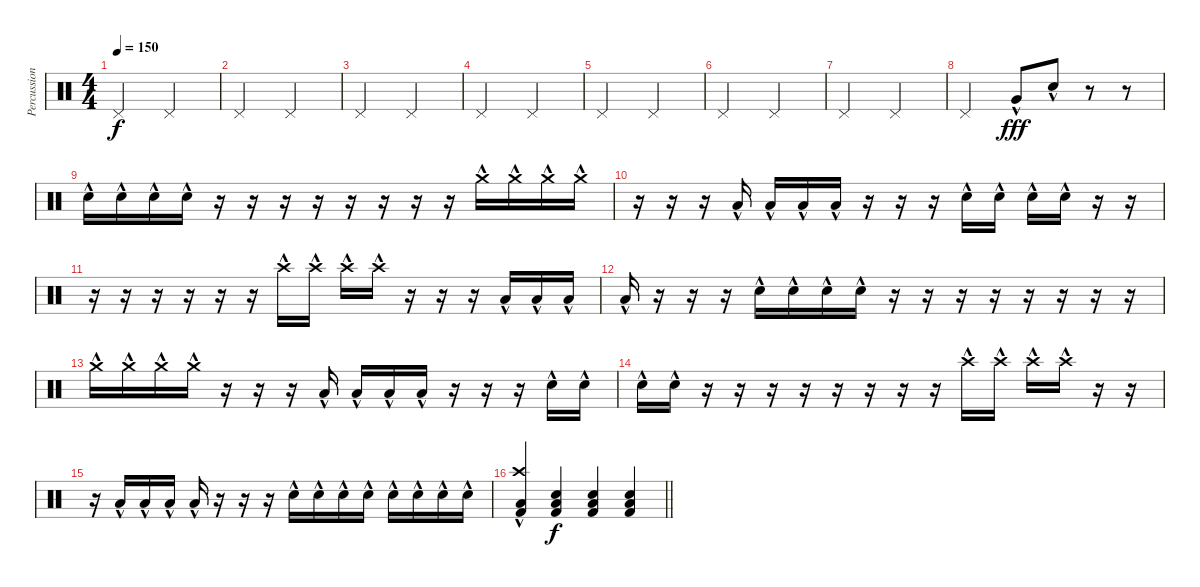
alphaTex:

\track ("Percussion" "Percussion") {instrument percussion}
\staff {score}
\articulation defaults
\ts (4 4)
\tempo 150
\clef neutral
\ks c "Pedal Hi-Hat (hit)".2{dy f} "Pedal Hi-Hat (hit)".2
|
"Pedal Hi-Hat (hit)".2 "Pedal Hi-Hat (hit)".2 |
"Pedal Hi-Hat (hit)".2 "Pedal Hi-Hat (hit)".2 |
"Pedal Hi-Hat (hit)".2 "Pedal Hi-Hat (hit)".2 |
"Pedal Hi-Hat (hit)".2 "Pedal Hi-Hat (hit)".2 |
"Pedal Hi-Hat (hit)".2 "Pedal Hi-Hat (hit)".2 |
"Pedal Hi-Hat (hit)".2 "Pedal Hi-Hat (hit)".2 |
"Pedal Hi-Hat (hit)".2 "Very Low Tom (hit)"{hac}.8{dy fff} "Snare (hit) 2"{hac}.8 r.8 r.8 |
"Snare (hit) 2"{hac}.16 "Snare (hit) 2"{hac}.16 "Snare (hit) 2"{hac}.16 "Snare (hit) 2"{hac}.16 r.16 r.16 r.16 r.16 r.16 r.16 r.16 r.16 "Crash medium (hit)"{hac}.16 "Crash medium (hit)"{hac}.16 "Crash medium (hit)"{hac}.16 "Crash medium (hit)"{hac}.16 |
r.16 r.16 r.16 "Low Tom (hit)"{hac}.16 "Low Tom (hit)"{hac}.16 "Low Tom (hit)"{hac}.16 "Low Tom (hit)"{hac}.16 r.16 r.16 r.16 "Snare (hit) 2"{hac}.16 "Snare (hit) 2"{hac}.16 "Snare (hit) 2"{hac}.16 "Snare (hit) 2"{hac}.16 r.16 r.16 |
r.16 r.16 r.16 r.16 r.16 r.16 "Crash high (hit)"{hac}.16 "Crash high (hit)"{hac}.16 "Crash high (hit)"{hac}.16 "Crash high (hit)"{hac}.16 r.16 r.16 r.16 "Low Tom (hit)"{hac}.16 "Low Tom (hit)"{hac}.16 "Low Tom (hit)"{hac}.16 |
"Low Tom (hit)"{hac}.16 r.16 r.16 r.16 "Snare (hit) 2"{hac}.16 "Snare (hit) 2"{hac}.16 "Snare (hit) 2"{hac}.16 "Snare (hit) 2"{hac}.16 r.16 r.16 r.16 r.16 r.16 r.16 r.16 r.16 |
"Crash medium (hit)"{hac}.16 "Crash medium (hit)"{hac}.16 "Crash medium (hit)"{hac}.16 "Crash medium (hit)"{hac}.16 r.16 r.16 r.16 "Low Tom (hit)"{hac}.16 "Low Tom (hit)"{hac}.16 "Low Tom (hit)"{hac}.16 "Low Tom (hit)"{hac}.16 r.16 r.16 r.16 "Snare (hit) 2"{hac}.16 "Snare (hit) 2"{hac}.16 |
"Snare (hit) 2"{hac}.16 "Snare (hit) 2"{hac}.16 r.16 r.16 r.16 r.16 r.16 r.16 r.16 r.16 "Crash high (hit)"{hac}.16 "Crash high (hit)"{hac}.16 "Crash high (hit)"{hac}.16 "Crash high (hit)"{hac}.16 r.16 r.16 |
r.16 "Low Tom (hit)"{hac}.16 "Low Tom (hit)"{hac}.16 "Low Tom (hit)"{hac}.16 "Low Tom (hit)"{hac}.16 r.16 r.16 r.16 "Snare (hit) 2"{hac}.16 "Snare (hit) 2"{hac}.16 "Snare (hit) 2"{hac}.16 "Snare (hit) 2"{hac}.16 "Snare (hit) 2"{hac}.16 "Snare (hit) 2"{hac}.16 "Snare (hit) 2"{hac}.16 "Snare (hit) 2"{hac}.16 |
\barLineRight lightlight
("Crash high (hit)"{hac} "Low Tom (hit)"{hac} "Kick (hit) 2"{hac}).4 ("Low Tom (hit)" "Snare (hit) 2" "Kick (hit) 2").4{dy f} ("Low Tom (hit)" "Snare (hit) 2" "Kick (hit) 2").4 ("Low Tom (hit)" "Snare (hit) 2" "Kick (hit) 2").4
